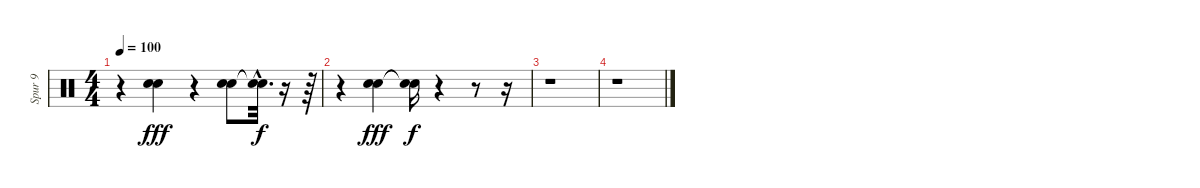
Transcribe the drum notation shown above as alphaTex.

\track ("Spur 9" "Spur 9") {instrument percussion}
\staff {score}
\articulation defaults
\ts (4 4)
\tempo 100
\clef neutral
\ks c
r.4{dy fff} ("Snare (hit) 2" "Metronome (bell)").4 r.4 ("Snare (hit) 2" "Metronome (bell)").8 ("Snare (hit)"{hac t} "Snare (hit)"{t}).32{d dy f} r.16 r.64 |
r.4 ("Metronome (bell)" "Snare (hit) 2").4{dy fff} ("Snare (hit)"{t} "Snare (hit)"{t}).16{dy f} r.4 r.8 r.16 |
r.1 |
r.1
